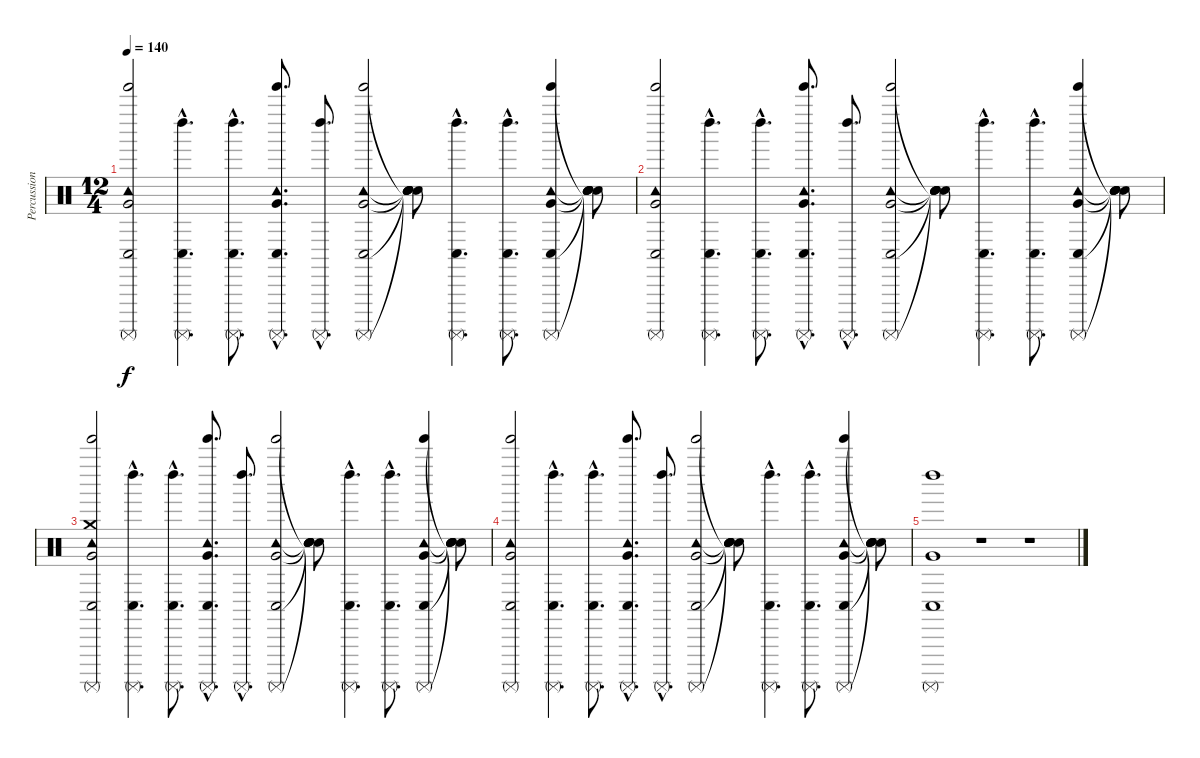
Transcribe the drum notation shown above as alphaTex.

\track ("Percussions" "Percussion") {instrument percussion}
\staff {score}
\articulation defaults
\ts (12 4)
\tempo 140
\clef neutral
\ks c
("Conga low (hit)" "Tinkle Bell (hit)" "Very Low Tom (hit)" "Tambourine (hit)" "Surdo (mute)").2{dy f} ("Conga low (hit)"{hac} "Left Maraca (hit)"{hac} "Surdo (mute)"{hac}).4{d} ("Conga low (hit)"{hac} "Left Maraca (hit)"{hac} "Surdo (mute)"{hac}).8{d} ("Conga low (hit)"{hac} "Tinkle Bell (hit)"{hac} "Very Low Tom (hit)"{hac} "Tambourine (hit)"{hac} "Surdo (mute)"{hac}).8{d} ("Left Maraca (hit)"{hac} "Surdo (mute)"{hac}).8{d} ("Conga low (hit)" "Tinkle Bell (hit)" "Very Low Tom (hit)" "Tambourine (hit)" "Surdo (mute)").2 ("Snare (hit)"{t} "Snare (hit)"{t} "Snare (hit)"{t} "Snare (hit)"{t} "Snare (hit)"{t}).8 ("Conga low (hit)"{hac} "Left Maraca (hit)"{hac} "Surdo (mute)"{hac}).4{d} ("Conga low (hit)"{hac} "Left Maraca (hit)"{hac} "Surdo (mute)"{hac}).8{d} ("Conga low (hit)" "Tinkle Bell (hit)" "Very Low Tom (hit)" "Tambourine (hit)" "Surdo (mute)").4 ("Snare (hit)"{t} "Snare (hit)"{t} "Snare (hit)"{t} "Snare (hit)"{t} "Snare (hit)"{t}).8 |
("Conga low (hit)" "Tinkle Bell (hit)" "Very Low Tom (hit)" "Tambourine (hit)" "Surdo (mute)").2 ("Conga low (hit)"{hac} "Left Maraca (hit)"{hac} "Surdo (mute)"{hac}).4{d} ("Conga low (hit)"{hac} "Left Maraca (hit)"{hac} "Surdo (mute)"{hac}).8{d} ("Conga low (hit)"{hac} "Tinkle Bell (hit)"{hac} "Very Low Tom (hit)"{hac} "Tambourine (hit)"{hac} "Surdo (mute)"{hac}).8{d} ("Left Maraca (hit)"{hac} "Surdo (mute)"{hac}).8{d} ("Conga low (hit)" "Tinkle Bell (hit)" "Very Low Tom (hit)" "Tambourine (hit)" "Surdo (mute)").2 ("Snare (hit)"{t} "Snare (hit)"{t} "Snare (hit)"{t} "Snare (hit)"{t} "Snare (hit)"{t}).8 ("Conga low (hit)"{hac} "Left Maraca (hit)"{hac} "Surdo (mute)"{hac}).4{d} ("Conga low (hit)"{hac} "Left Maraca (hit)"{hac} "Surdo (mute)"{hac}).8{d} ("Conga low (hit)" "Tinkle Bell (hit)" "Very Low Tom (hit)" "Tambourine (hit)" "Surdo (mute)").4 ("Snare (hit)"{t} "Snare (hit)"{t} "Snare (hit)"{t} "Snare (hit)"{t} "Snare (hit)"{t}).8 |
("Conga low (hit)" "Tinkle Bell (hit)" "Very Low Tom (hit)" "Tambourine (hit)" "Crash medium (hit)" "Surdo (mute)").2 ("Conga low (hit)"{hac} "Left Maraca (hit)"{hac} "Surdo (mute)"{hac}).4{d} ("Conga low (hit)"{hac} "Left Maraca (hit)"{hac} "Surdo (mute)"{hac}).8{d} ("Conga low (hit)"{hac} "Tinkle Bell (hit)"{hac} "Very Low Tom (hit)"{hac} "Tambourine (hit)"{hac} "Surdo (mute)"{hac}).8{d} ("Left Maraca (hit)"{hac} "Surdo (mute)"{hac}).8{d} ("Conga low (hit)" "Tinkle Bell (hit)" "Very Low Tom (hit)" "Tambourine (hit)" "Surdo (mute)").2 ("Snare (hit)"{t} "Snare (hit)"{t} "Snare (hit)"{t} "Snare (hit)"{t} "Snare (hit)"{t}).8 ("Conga low (hit)"{hac} "Left Maraca (hit)"{hac} "Surdo (mute)"{hac}).4{d} ("Conga low (hit)"{hac} "Left Maraca (hit)"{hac} "Surdo (mute)"{hac}).8{d} ("Conga low (hit)" "Tinkle Bell (hit)" "Very Low Tom (hit)" "Tambourine (hit)" "Surdo (mute)").4 ("Snare (hit)"{t} "Snare (hit)"{t} "Snare (hit)"{t} "Snare (hit)"{t} "Snare (hit)"{t}).8 |
("Conga low (hit)" "Tinkle Bell (hit)" "Very Low Tom (hit)" "Tambourine (hit)" "Surdo (mute)").2 ("Conga low (hit)"{hac} "Left Maraca (hit)"{hac} "Surdo (mute)"{hac}).4{d} ("Conga low (hit)"{hac} "Left Maraca (hit)"{hac} "Surdo (mute)"{hac}).8{d} ("Conga low (hit)"{hac} "Tinkle Bell (hit)"{hac} "Very Low Tom (hit)"{hac} "Tambourine (hit)"{hac} "Surdo (mute)"{hac}).8{d} ("Left Maraca (hit)"{hac} "Surdo (mute)"{hac}).8{d} ("Conga low (hit)" "Tinkle Bell (hit)" "Very Low Tom (hit)" "Tambourine (hit)" "Surdo (mute)").2 ("Snare (hit)"{t} "Snare (hit)"{t} "Snare (hit)"{t} "Snare (hit)"{t} "Snare (hit)"{t}).8 ("Conga low (hit)"{hac} "Left Maraca (hit)"{hac} "Surdo (mute)"{hac}).4{d} ("Conga low (hit)"{hac} "Left Maraca (hit)"{hac} "Surdo (mute)"{hac}).8{d} ("Conga low (hit)" "Tinkle Bell (hit)" "Very Low Tom (hit)" "Tambourine (hit)" "Surdo (mute)").4 ("Snare (hit)"{t} "Snare (hit)"{t} "Snare (hit)"{t} "Snare (hit)"{t} "Snare (hit)"{t}).8 |
("Conga low (hit)" "Very Low Tom (hit)" "Left Maraca (hit)" "Surdo (mute)").1 r.1 r.1
